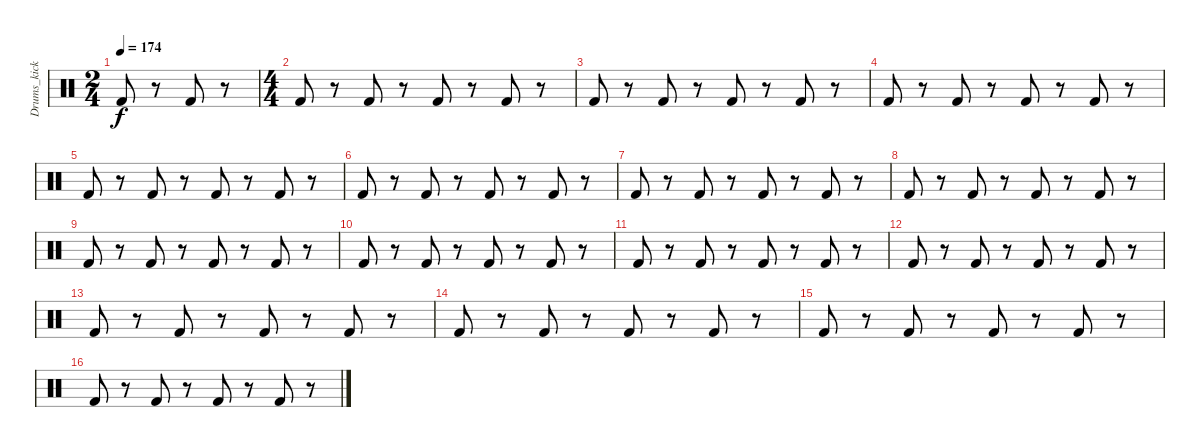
\track ("Drums_kick" "Drums_kick") {instrument percussion}
\staff {score}
\articulation defaults
\ts (2 4)
\tempo 174
\clef neutral
\ks c "Kick (hit) 2".8{dy f}
r.8 "Kick (hit) 2".8 r.8 |
\ts (4 4)
"Kick (hit) 2".8 r.8 "Kick (hit) 2".8 r.8 "Kick (hit) 2".8 r.8 "Kick (hit) 2".8 r.8 |
"Kick (hit) 2".8 r.8 "Kick (hit) 2".8 r.8 "Kick (hit) 2".8 r.8 "Kick (hit) 2".8 r.8 |
"Kick (hit) 2".8 r.8 "Kick (hit) 2".8 r.8 "Kick (hit) 2".8 r.8 "Kick (hit) 2".8 r.8 |
"Kick (hit) 2".8 r.8 "Kick (hit) 2".8 r.8 "Kick (hit) 2".8 r.8 "Kick (hit) 2".8 r.8 |
"Kick (hit) 2".8 r.8 "Kick (hit) 2".8 r.8 "Kick (hit) 2".8 r.8 "Kick (hit) 2".8 r.8 |
"Kick (hit) 2".8 r.8 "Kick (hit) 2".8 r.8 "Kick (hit) 2".8 r.8 "Kick (hit) 2".8 r.8 |
"Kick (hit) 2".8 r.8 "Kick (hit) 2".8 r.8 "Kick (hit) 2".8 r.8 "Kick (hit) 2".8 r.8 |
"Kick (hit) 2".8 r.8 "Kick (hit) 2".8 r.8 "Kick (hit) 2".8 r.8 "Kick (hit) 2".8 r.8 |
"Kick (hit) 2".8 r.8 "Kick (hit) 2".8 r.8 "Kick (hit) 2".8 r.8 "Kick (hit) 2".8 r.8 |
"Kick (hit) 2".8 r.8 "Kick (hit) 2".8 r.8 "Kick (hit) 2".8 r.8 "Kick (hit) 2".8 r.8 |
"Kick (hit) 2".8 r.8 "Kick (hit) 2".8 r.8 "Kick (hit) 2".8 r.8 "Kick (hit) 2".8 r.8 |
"Kick (hit) 2".8 r.8 "Kick (hit) 2".8 r.8 "Kick (hit) 2".8 r.8 "Kick (hit) 2".8 r.8 |
"Kick (hit) 2".8 r.8 "Kick (hit) 2".8 r.8 "Kick (hit) 2".8 r.8 "Kick (hit) 2".8 r.8 |
"Kick (hit) 2".8 r.8 "Kick (hit) 2".8 r.8 "Kick (hit) 2".8 r.8 "Kick (hit) 2".8 r.8 |
"Kick (hit) 2".8 r.8 "Kick (hit) 2".8 r.8 "Kick (hit) 2".8 r.8 "Kick (hit) 2".8 r.8
